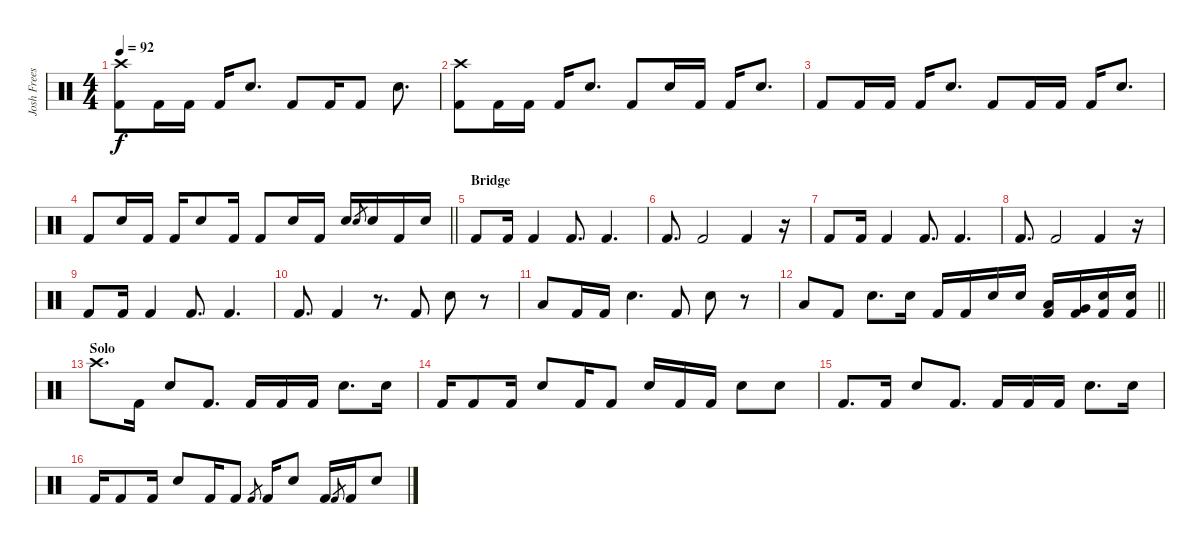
\track ("Josh Freese (Studio Drummer)" "Josh Frees") {instrument percussion}
\staff {score}
\articulation defaults
\ts (4 4)
\tempo 92
\clef neutral
\ks c
("Crash high (hit)" "Kick (hit) 2").8{dy f} "Kick (hit) 2".16 "Kick (hit) 2".16 "Kick (hit) 2".16 "Electric Snare (hit)".8{d} "Kick (hit) 2".8 "Kick (hit) 2".16 "Kick (hit) 2".8 "Electric Snare (hit)".8{d} |
("Crash high (hit)" "Kick (hit) 2").8 "Kick (hit) 2".16 "Kick (hit) 2".16 "Kick (hit) 2".16 "Electric Snare (hit)".8{d} "Kick (hit) 2".8 "Electric Snare (hit)".16 "Kick (hit) 2".16 "Kick (hit) 2".16 "Electric Snare (hit)".8{d} |
"Kick (hit) 2".8 "Kick (hit) 2".16 "Kick (hit) 2".16 "Kick (hit) 2".16 "Electric Snare (hit)".8{d} "Kick (hit) 2".8 "Kick (hit) 2".16 "Kick (hit) 2".16 "Kick (hit) 2".16 "Electric Snare (hit)".8{d} |
\barLineRight lightlight "Kick (hit) 2".8 "Electric Snare (hit)".16 "Kick (hit) 2".16 "Kick (hit) 2".16 "Electric Snare (hit)".8 "Kick (hit) 2".16 "Kick (hit) 2".8 "Electric Snare (hit)".16 "Kick (hit) 2".16 "Electric Snare (hit)".16 "Electric Snare (hit)".8{gr} "Electric Snare (hit)".16 "Kick (hit) 2".16 "Electric Snare (hit)".16
|
\section ("" "Bridge")
"Kick (hit) 2".8 "Kick (hit) 2".16 "Kick (hit) 2".4 "Kick (hit) 2".8{d} "Kick (hit) 2".4{d} |
"Kick (hit) 2".8{d} "Kick (hit) 2".2 "Kick (hit) 2".4 r.16 |
"Kick (hit) 2".8 "Kick (hit) 2".16 "Kick (hit) 2".4 "Kick (hit) 2".8{d} "Kick (hit) 2".4{d} |
"Kick (hit) 2".8{d} "Kick (hit) 2".2 "Kick (hit) 2".4 r.16 |
"Kick (hit) 2".8 "Kick (hit) 2".16 "Kick (hit) 2".4 "Kick (hit) 2".8{d} "Kick (hit) 2".4{d} |
"Kick (hit) 2".8{d} "Kick (hit) 2".4 r.8{d} "Kick (hit) 2".8 "Electric Snare (hit)".8 r.8 |
"Low Tom (hit)".8 "Kick (hit) 2".16 "Kick (hit) 2".16 "Electric Snare (hit)".4{d} "Kick (hit) 2".8 "Electric Snare (hit)".8 r.8 |
\barLineRight lightlight "Low Tom (hit)".8 "Kick (hit) 2".8 "Electric Snare (hit)".8{d} "Electric Snare (hit)".16 "Kick (hit) 2".16 "Kick (hit) 2".16 "Electric Snare (hit)".16 "Electric Snare (hit)".16
("Low Tom (hit)" "Kick (hit) 2").16 ("Very Low Tom (hit)" "Kick (hit) 2").16 ("Electric Snare (hit)" "Kick (hit) 2").16 ("Electric Snare (hit)" "Kick (hit) 2").16 |
\section ("" "Solo")
"Crash high (hit)".8{d volume 13} "Kick (hit) 2".16 "Electric Snare (hit)".8 "Kick (hit) 2".8{d} "Kick (hit) 2".16 "Kick (hit) 2".16 "Kick (hit) 2".16 "Electric Snare (hit)".8{d} "Electric Snare (hit)".16 |
"Kick (hit) 2".16 "Kick (hit) 2".8 "Kick (hit) 2".16 "Electric Snare (hit)".8 "Kick (hit) 2".16 "Kick (hit) 2".8 "Electric Snare (hit)".16 "Kick (hit) 2".16 "Kick (hit) 2".16 "Electric Snare (hit)".8 "Electric Snare (hit)".8 |
"Kick (hit) 2".8{d} "Kick (hit) 2".16 "Electric Snare (hit)".8 "Kick (hit) 2".8{d} "Kick (hit) 2".16 "Kick (hit) 2".16 "Kick (hit) 2".16 "Electric Snare (hit)".8{d} "Electric Snare (hit)".16 |
"Kick (hit) 2".16 "Kick (hit) 2".8 "Kick (hit) 2".16 "Electric Snare (hit)".8 "Kick (hit) 2".16 "Kick (hit) 2".8 "Kick (hit) 2".8{gr} "Kick (hit) 2".16 "Electric Snare (hit)".8 "Kick (hit) 2".16 "Kick (hit) 2".8{gr} "Kick (hit) 2".16 "Electric Snare (hit)".8
